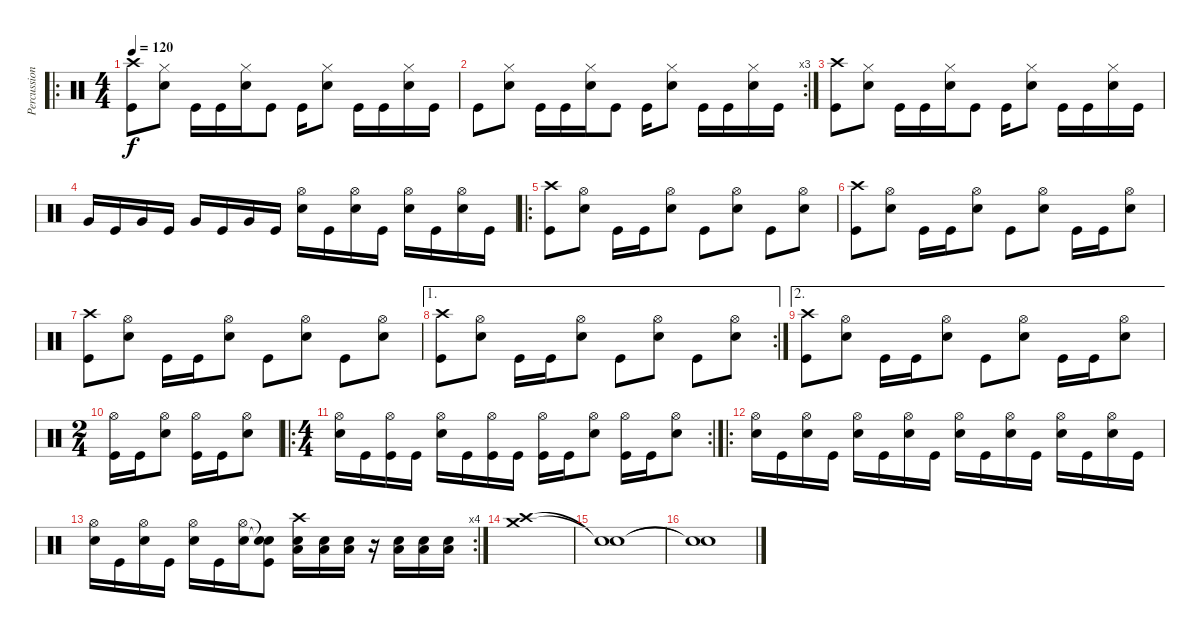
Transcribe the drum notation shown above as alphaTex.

\track ("Percussion" "Percussion") {instrument percussion}
\staff {score}
\articulation defaults
\ro
\ts (4 4)
\tempo 120
\clef neutral
\ks c
("Crash high (hit)" "Kick (hit)").8{dy f} ("Hi-Hat (closed)" "Snare (hit) 2").8 "Kick (hit)".16 "Kick (hit)".16 ("Hi-Hat (closed)" "Snare (hit) 2").16 "Kick (hit)".8 "Kick (hit)".16 ("Hi-Hat (closed)" "Snare (hit) 2").8 "Kick (hit)".16 "Kick (hit)".16 ("Hi-Hat (closed)" "Snare (hit) 2").16 "Kick (hit)".16 |
\rc 3 "Kick (hit)".8
("Hi-Hat (closed)" "Snare (hit) 2").8 "Kick (hit)".16 "Kick (hit)".16 ("Hi-Hat (closed)" "Snare (hit) 2").16 "Kick (hit)".8 "Kick (hit)".16 ("Hi-Hat (closed)" "Snare (hit) 2").8 "Kick (hit)".16 "Kick (hit)".16 ("Hi-Hat (closed)" "Snare (hit) 2").16 "Kick (hit)".16 |
("Crash high (hit)" "Kick (hit)").8 ("Hi-Hat (closed)" "Snare (hit) 2").8 "Kick (hit)".16 "Kick (hit)".16 ("Hi-Hat (closed)" "Snare (hit) 2").16 "Kick (hit)".8 "Kick (hit)".16 ("Hi-Hat (closed)" "Snare (hit) 2").8 "Kick (hit)".16 "Kick (hit)".16 ("Hi-Hat (closed)" "Snare (hit) 2").16 "Kick (hit)".16 |
"Very Low Tom (hit)".16 "Kick (hit)".16 "Very Low Tom (hit)".16 "Kick (hit)".16 "Very Low Tom (hit)".16 "Kick (hit)".16 "Very Low Tom (hit)".16 "Kick (hit)".16 ("Hi-Hat (open)" "Snare (hit) 2").16 "Kick (hit)".16 ("Hi-Hat (open)" "Snare (hit) 2").16 "Kick (hit)".16 ("Hi-Hat (open)" "Snare (hit) 2").16 "Kick (hit)".16 ("Hi-Hat (open)" "Snare (hit) 2").16 "Kick (hit)".16 |
\ro
("Crash high (hit)" "Kick (hit)").8 ("Hi-Hat (open)" "Snare (hit) 2").8 "Kick (hit)".16 "Kick (hit)".16 ("Hi-Hat (open)" "Snare (hit) 2").8 "Kick (hit)".8 ("Hi-Hat (open)" "Snare (hit) 2").8 "Kick (hit)".8 ("Hi-Hat (open)" "Snare (hit) 2").8 |
("Crash high (hit)" "Kick (hit)").8 ("Hi-Hat (open)" "Snare (hit) 2").8 "Kick (hit)".16 "Kick (hit)".16 ("Hi-Hat (open)" "Snare (hit) 2").8 "Kick (hit)".8 ("Hi-Hat (open)" "Snare (hit) 2").8 "Kick (hit)".16 "Kick (hit)".16 ("Hi-Hat (open)" "Snare (hit) 2").8 |
("Crash high (hit)" "Kick (hit)").8 ("Hi-Hat (open)" "Snare (hit) 2").8 "Kick (hit)".16 "Kick (hit)".16 ("Hi-Hat (open)" "Snare (hit) 2").8 "Kick (hit)".8 ("Hi-Hat (open)" "Snare (hit) 2").8 "Kick (hit)".8 ("Hi-Hat (open)" "Snare (hit) 2").8 |
\ae 1
\rc 2
("Crash high (hit)" "Kick (hit)").8 ("Hi-Hat (open)" "Snare (hit) 2").8 "Kick (hit)".16 "Kick (hit)".16 ("Hi-Hat (open)" "Snare (hit) 2").8 "Kick (hit)".8 ("Hi-Hat (open)" "Snare (hit) 2").8 "Kick (hit)".8 ("Hi-Hat (open)" "Snare (hit) 2").8 |
\ae 2
("Crash high (hit)" "Kick (hit)").8 ("Hi-Hat (open)" "Snare (hit) 2").8 "Kick (hit)".16 "Kick (hit)".16 ("Hi-Hat (open)" "Snare (hit) 2").8 "Kick (hit)".8 ("Hi-Hat (open)" "Snare (hit) 2").8 "Kick (hit)".16 "Kick (hit)".16 ("Hi-Hat (open)" "Snare (hit) 2").8 |
\ts (2 4)
("Hi-Hat (open)" "Kick (hit)").16 "Kick (hit)".16 ("Hi-Hat (open)" "Snare (hit) 2").8 ("Hi-Hat (open)" "Kick (hit)").16 "Kick (hit)".16 ("Hi-Hat (open)" "Snare (hit) 2").8 |
\ro
\rc 2
\ts (4 4)
("Hi-Hat (open)" "Snare (hit) 2").16 "Kick (hit)".16 ("Hi-Hat (open)" "Kick (hit)").16 "Kick (hit)".16 ("Hi-Hat (open)" "Snare (hit) 2").16 "Kick (hit)".16 ("Hi-Hat (open)" "Kick (hit)").16 "Kick (hit)".16 ("Hi-Hat (open)" "Kick (hit)").16 "Kick (hit)".16 ("Hi-Hat (open)" "Snare (hit) 2").8 ("Hi-Hat (open)" "Kick (hit)").16 "Kick (hit)".16 ("Hi-Hat (open)" "Snare (hit) 2").8 |
\ro
("Hi-Hat (open)" "Snare (hit) 2").16 "Kick (hit)".16 ("Hi-Hat (open)" "Snare (hit) 2").16 "Kick (hit)".16 ("Hi-Hat (open)" "Snare (hit) 2").16 "Kick (hit)".16 ("Hi-Hat (open)" "Snare (hit) 2").16 "Kick (hit)".16 ("Hi-Hat (open)" "Snare (hit) 2").16 "Kick (hit)".16 ("Hi-Hat (open)" "Snare (hit) 2").16 "Kick (hit)".16 ("Hi-Hat (open)" "Snare (hit) 2").16 "Kick (hit)".16 ("Hi-Hat (open)" "Snare (hit) 2").16 "Kick (hit)".16 |
\rc 4
("Hi-Hat (open)" "Snare (hit) 2").16 "Kick (hit)".16 ("Hi-Hat (open)" "Snare (hit) 2").16 "Kick (hit)".16 ("Hi-Hat (open)" "Snare (hit) 2").16 "Kick (hit)".16 ("Hi-Hat (open)" "Snare (hit) 2").16 ("Snare (hit)"{t} "Snare (hit)"{t} "Kick (hit)").8 ("Crash high (hit)" "Low Tom (hit)" "Snare (hit) 2").16 ("Low Tom (hit)" "Snare (hit) 2").16 ("Low Tom (hit)" "Snare (hit) 2").16 r.16 ("Low Tom (hit)" "Snare (hit) 2").16 ("Low Tom (hit)" "Snare (hit) 2").16 ("Low Tom (hit)" "Snare (hit) 2").16 |
("Crash medium (hit)" "Crash high (hit)").1 |
("Snare (hit)"{t} "Snare (hit)"{t}).1 |
("Snare (hit)"{t} "Snare (hit)"{t}).1
